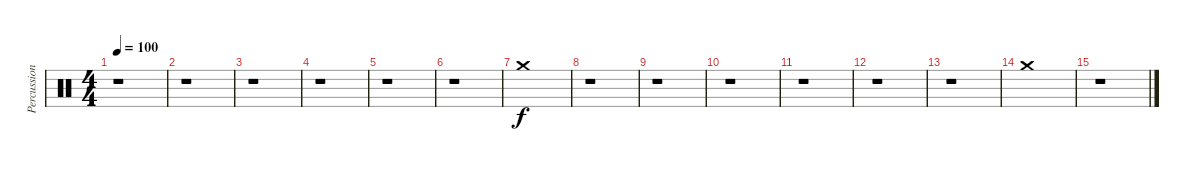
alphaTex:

\track ("Percussions" "Percussion") {instrument percussion}
\staff {score}
\articulation defaults
\ts (4 4)
\tempo 100
\clef neutral
\ks c
r.1{dy f} |
r.1 |
r.1 |
r.1 |
r.1 |
r.1 |
"Crash medium (hit)".1 |
r.1 |
r.1 |
r.1 |
r.1 |
r.1 |
r.1 |
"Crash medium (hit)".1 |
r.1
